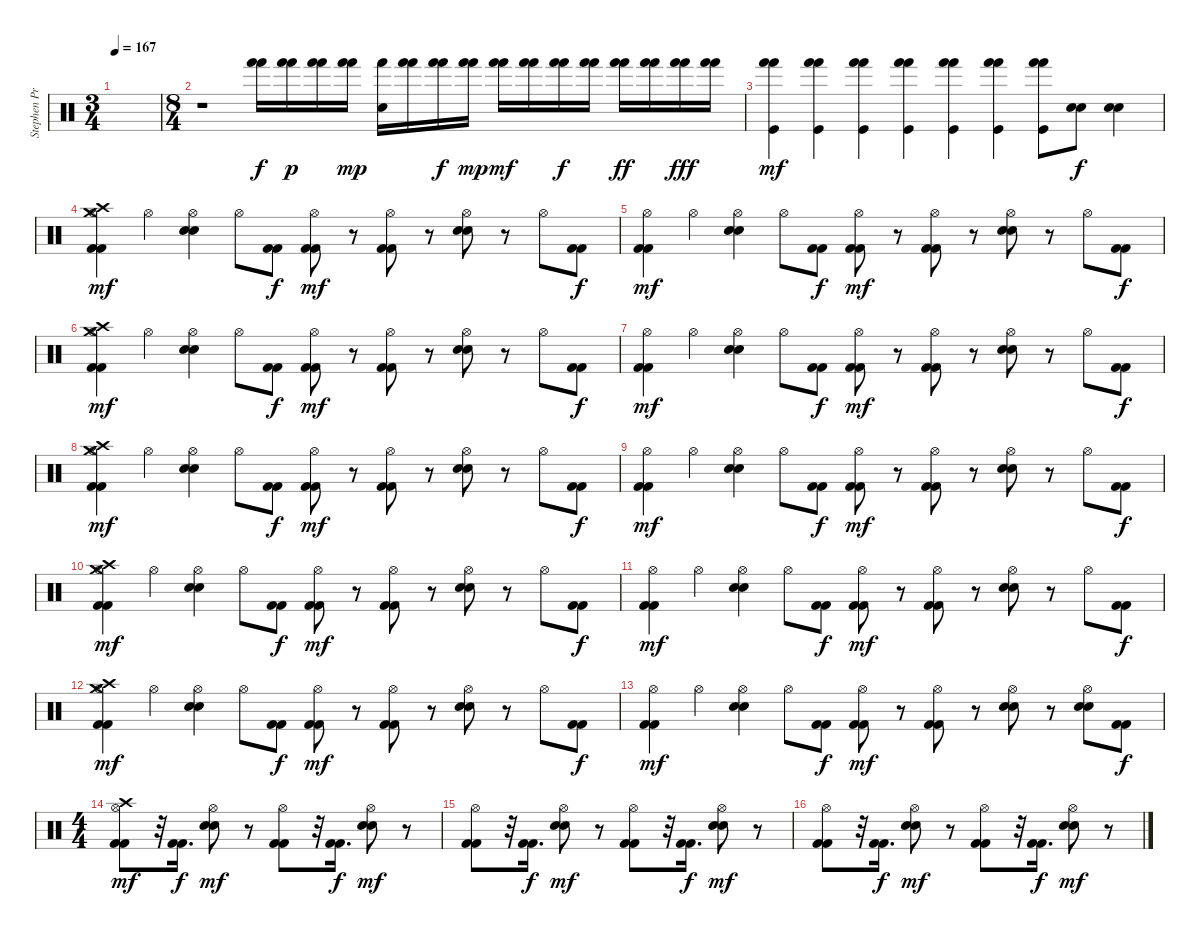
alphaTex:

\track ("Stephen Priestly  (Drums)" "Stephen Pr") {instrument percussion}
\staff {score}
\articulation defaults
\ts (3 4)
\tempo 167
\clef neutral
\ks c
|
\ts (8 4)
r.1 ("Hand (hit)" "Hand (hit)").16 ("Hand (hit)" "Hand (hit)").16{dy p} ("Hand (hit)" "Hand (hit)").16 ("Hand (hit)" "Hand (hit)").16{dy mp} ("Hand (hit)" "Snare (hit)").16 ("Hand (hit)" "Hand (hit)").16 ("Hand (hit)" "Hand (hit)").16{dy f} ("Hand (hit)" "Hand (hit)").16{dy mp} ("Hand (hit)" "Hand (hit)").16{dy mf} ("Hand (hit)" "Hand (hit)").16 ("Hand (hit)" "Hand (hit)").16{dy f} ("Hand (hit)" "Hand (hit)").16 ("Hand (hit)" "Hand (hit)").16{dy ff} ("Hand (hit)" "Hand (hit)").16 ("Hand (hit)" "Hand (hit)").16{dy fff} ("Hand (hit)" "Hand (hit)").16 |
("Hand (hit)" "Hand (hit)" "Kick (hit)").4{dy mf} ("Hand (hit)" "Hand (hit)" "Kick (hit)").4 ("Hand (hit)" "Hand (hit)" "Kick (hit)").4 ("Hand (hit)" "Hand (hit)" "Kick (hit)").4 ("Hand (hit)" "Hand (hit)" "Kick (hit)").4 ("Hand (hit)" "Hand (hit)" "Kick (hit)").4 ("Hand (hit)" "Hand (hit)" "Kick (hit)").8 ("Electric Snare (hit)" "Electric Snare (hit)").8{dy f} ("Electric Snare (hit)" "Electric Snare (hit)").4 |
("Crash high (hit)" "Crash medium (hit)" "Hi-Hat (open)" "Kick (hit) 2" "Kick (hit) 2").4{dy mf} "Hi-Hat (open)".4 ("Hi-Hat (open)" "Electric Snare (hit)" "Electric Snare (hit)").4 "Hi-Hat (open)".8 ("Kick (hit) 2" "Kick (hit) 2").8{dy f} ("Hi-Hat (open)" "Kick (hit) 2" "Kick (hit) 2").8{dy mf} r.8 ("Hi-Hat (open)" "Kick (hit) 2" "Kick (hit) 2").8 r.8 ("Hi-Hat (open)" "Electric Snare (hit)" "Electric Snare (hit)").8 r.8 "Hi-Hat (open)".8 ("Kick (hit) 2" "Kick (hit) 2").8{dy f} |
("Hi-Hat (open)" "Kick (hit) 2" "Kick (hit) 2").4{dy mf} "Hi-Hat (open)".4 ("Hi-Hat (open)" "Electric Snare (hit)" "Electric Snare (hit)").4 "Hi-Hat (open)".8 ("Kick (hit) 2" "Kick (hit) 2").8{dy f} ("Hi-Hat (open)" "Kick (hit) 2" "Kick (hit) 2").8{dy mf} r.8 ("Hi-Hat (open)" "Kick (hit) 2" "Kick (hit) 2").8 r.8 ("Hi-Hat (open)" "Electric Snare (hit)" "Electric Snare (hit)").8 r.8 "Hi-Hat (open)".8 ("Kick (hit) 2" "Kick (hit) 2").8{dy f} |
("Crash high (hit)" "Crash medium (hit)" "Hi-Hat (open)" "Kick (hit) 2" "Kick (hit) 2").4{dy mf} "Hi-Hat (open)".4 ("Hi-Hat (open)" "Electric Snare (hit)" "Electric Snare (hit)").4 "Hi-Hat (open)".8 ("Kick (hit) 2" "Kick (hit) 2").8{dy f} ("Hi-Hat (open)" "Kick (hit) 2" "Kick (hit) 2").8{dy mf} r.8 ("Hi-Hat (open)" "Kick (hit) 2" "Kick (hit) 2").8 r.8 ("Hi-Hat (open)" "Electric Snare (hit)" "Electric Snare (hit)").8 r.8 "Hi-Hat (open)".8 ("Kick (hit) 2" "Kick (hit) 2").8{dy f} |
("Hi-Hat (open)" "Kick (hit) 2" "Kick (hit) 2").4{dy mf} "Hi-Hat (open)".4 ("Hi-Hat (open)" "Electric Snare (hit)" "Electric Snare (hit)").4 "Hi-Hat (open)".8 ("Kick (hit) 2" "Kick (hit) 2").8{dy f} ("Hi-Hat (open)" "Kick (hit) 2" "Kick (hit) 2").8{dy mf} r.8 ("Hi-Hat (open)" "Kick (hit) 2" "Kick (hit) 2").8 r.8 ("Hi-Hat (open)" "Electric Snare (hit)" "Electric Snare (hit)").8 r.8 "Hi-Hat (open)".8 ("Kick (hit) 2" "Kick (hit) 2").8{dy f} |
("Crash high (hit)" "Crash medium (hit)" "Hi-Hat (open)" "Kick (hit) 2" "Kick (hit) 2").4{dy mf} "Hi-Hat (open)".4 ("Hi-Hat (open)" "Electric Snare (hit)" "Electric Snare (hit)").4 "Hi-Hat (open)".8 ("Kick (hit) 2" "Kick (hit) 2").8{dy f} ("Hi-Hat (open)" "Kick (hit) 2" "Kick (hit) 2").8{dy mf} r.8 ("Hi-Hat (open)" "Kick (hit) 2" "Kick (hit) 2").8 r.8 ("Hi-Hat (open)" "Electric Snare (hit)" "Electric Snare (hit)").8 r.8 "Hi-Hat (open)".8 ("Kick (hit) 2" "Kick (hit) 2").8{dy f} |
("Hi-Hat (open)" "Kick (hit) 2" "Kick (hit) 2").4{dy mf} "Hi-Hat (open)".4 ("Hi-Hat (open)" "Electric Snare (hit)" "Electric Snare (hit)").4 "Hi-Hat (open)".8 ("Kick (hit) 2" "Kick (hit) 2").8{dy f} ("Hi-Hat (open)" "Kick (hit) 2" "Kick (hit) 2").8{dy mf} r.8 ("Hi-Hat (open)" "Kick (hit) 2" "Kick (hit) 2").8 r.8 ("Hi-Hat (open)" "Electric Snare (hit)" "Electric Snare (hit)").8 r.8 "Hi-Hat (open)".8 ("Kick (hit) 2" "Kick (hit) 2").8{dy f} |
("Crash high (hit)" "Crash medium (hit)" "Hi-Hat (open)" "Kick (hit) 2" "Kick (hit) 2").4{dy mf} "Hi-Hat (open)".4 ("Hi-Hat (open)" "Electric Snare (hit)" "Electric Snare (hit)").4 "Hi-Hat (open)".8 ("Kick (hit) 2" "Kick (hit) 2").8{dy f} ("Hi-Hat (open)" "Kick (hit) 2" "Kick (hit) 2").8{dy mf} r.8 ("Hi-Hat (open)" "Kick (hit) 2" "Kick (hit) 2").8 r.8 ("Hi-Hat (open)" "Electric Snare (hit)" "Electric Snare (hit)").8 r.8 "Hi-Hat (open)".8 ("Kick (hit) 2" "Kick (hit) 2").8{dy f} |
("Hi-Hat (open)" "Kick (hit) 2" "Kick (hit) 2").4{dy mf} "Hi-Hat (open)".4 ("Hi-Hat (open)" "Electric Snare (hit)" "Electric Snare (hit)").4 "Hi-Hat (open)".8 ("Kick (hit) 2" "Kick (hit) 2").8{dy f} ("Hi-Hat (open)" "Kick (hit) 2" "Kick (hit) 2").8{dy mf} r.8 ("Hi-Hat (open)" "Kick (hit) 2" "Kick (hit) 2").8 r.8 ("Hi-Hat (open)" "Electric Snare (hit)" "Electric Snare (hit)").8 r.8 "Hi-Hat (open)".8 ("Kick (hit) 2" "Kick (hit) 2").8{dy f} |
("Crash high (hit)" "Crash medium (hit)" "Hi-Hat (open)" "Kick (hit) 2" "Kick (hit) 2").4{dy mf} "Hi-Hat (open)".4 ("Hi-Hat (open)" "Electric Snare (hit)" "Electric Snare (hit)").4 "Hi-Hat (open)".8 ("Kick (hit) 2" "Kick (hit) 2").8{dy f} ("Hi-Hat (open)" "Kick (hit) 2" "Kick (hit) 2").8{dy mf} r.8 ("Hi-Hat (open)" "Kick (hit) 2" "Kick (hit) 2").8 r.8 ("Hi-Hat (open)" "Electric Snare (hit)" "Electric Snare (hit)").8 r.8 "Hi-Hat (open)".8 ("Kick (hit) 2" "Kick (hit) 2").8{dy f} |
("Hi-Hat (open)" "Kick (hit) 2" "Kick (hit) 2").4{dy mf} "Hi-Hat (open)".4 ("Hi-Hat (open)" "Electric Snare (hit)" "Electric Snare (hit)").4 "Hi-Hat (open)".8 ("Kick (hit) 2" "Kick (hit) 2").8{dy f} ("Hi-Hat (open)" "Kick (hit) 2" "Kick (hit) 2").8{dy mf} r.8 ("Hi-Hat (open)" "Kick (hit) 2" "Kick (hit) 2").8 r.8 ("Hi-Hat (open)" "Electric Snare (hit)" "Electric Snare (hit)").8 r.8 ("Hi-Hat (open)" "Electric Snare (hit)" "Electric Snare (hit)").8 ("Kick (hit) 2" "Kick (hit) 2").8{dy f} |
\ts (4 4)
("Crash high (hit)" "Hi-Hat (open)" "Kick (hit) 2" "Kick (hit) 2").8{dy mf} r.32 ("Kick (hit) 2" "Kick (hit) 2").16{d dy f} ("Hi-Hat (open)" "Electric Snare (hit)" "Electric Snare (hit)").8{dy mf} r.8 ("Hi-Hat (open)" "Kick (hit) 2" "Kick (hit) 2").8 r.32 ("Kick (hit) 2" "Kick (hit) 2").16{d dy f} ("Hi-Hat (open)" "Electric Snare (hit)" "Electric Snare (hit)").8{dy mf} r.8 |
("Hi-Hat (open)" "Kick (hit) 2" "Kick (hit) 2").8 r.32 ("Kick (hit) 2" "Kick (hit) 2").16{d dy f} ("Hi-Hat (open)" "Electric Snare (hit)" "Electric Snare (hit)").8{dy mf} r.8 ("Hi-Hat (open)" "Kick (hit) 2" "Kick (hit) 2").8 r.32 ("Kick (hit) 2" "Kick (hit) 2").16{d dy f} ("Hi-Hat (open)" "Electric Snare (hit)" "Electric Snare (hit)").8{dy mf} r.8 |
("Hi-Hat (open)" "Kick (hit) 2" "Kick (hit) 2").8 r.32 ("Kick (hit) 2" "Kick (hit) 2").16{d dy f} ("Hi-Hat (open)" "Electric Snare (hit)" "Electric Snare (hit)").8{dy mf} r.8 ("Hi-Hat (open)" "Kick (hit) 2" "Kick (hit) 2").8 r.32 ("Kick (hit) 2" "Kick (hit) 2").16{d dy f} ("Hi-Hat (open)" "Electric Snare (hit)" "Electric Snare (hit)").8{dy mf} r.8
